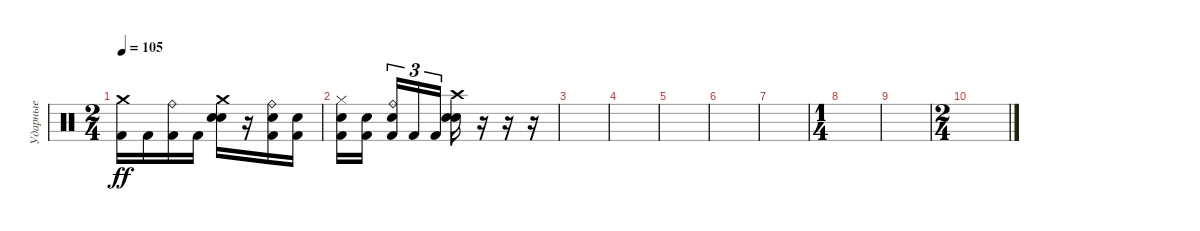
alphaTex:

\track ("Ударные" "Ударные") {instrument percussion}
\staff {score}
\articulation defaults
\ts (2 4)
\tempo 105
\clef neutral
\ks c
("Crash medium (hit)" "Kick (hit) 2").16{dy ff} "Kick (hit) 2".16 ("Ride (bell)" "Kick (hit) 2").16 "Kick (hit) 2".16 ("Crash medium (hit)" "Snare (hit) 2" "Electric Snare (hit)").16 r.16 ("Ride (bell)" "Kick (hit) 2" "Electric Snare (hit)").16 ("Kick (hit) 2" "Electric Snare (hit)").16 |
("Hi-Hat (closed)" "Kick (hit) 2" "Electric Snare (hit)").16 ("Kick (hit) 2" "Electric Snare (hit)").16 ("Ride (bell)" "Kick (hit) 2" "Electric Snare (hit)").16{tu (3 2)} "Kick (hit) 2".16{tu (3 2)} "Kick (hit) 2".16{tu (3 2)} ("Crash high (hit)" "Snare (hit) 2" "Electric Snare (hit)").16 r.16 r.16 r.16 |
|
|
|
|
|
\ts (1 4)
|
|
\ts (2 4)
